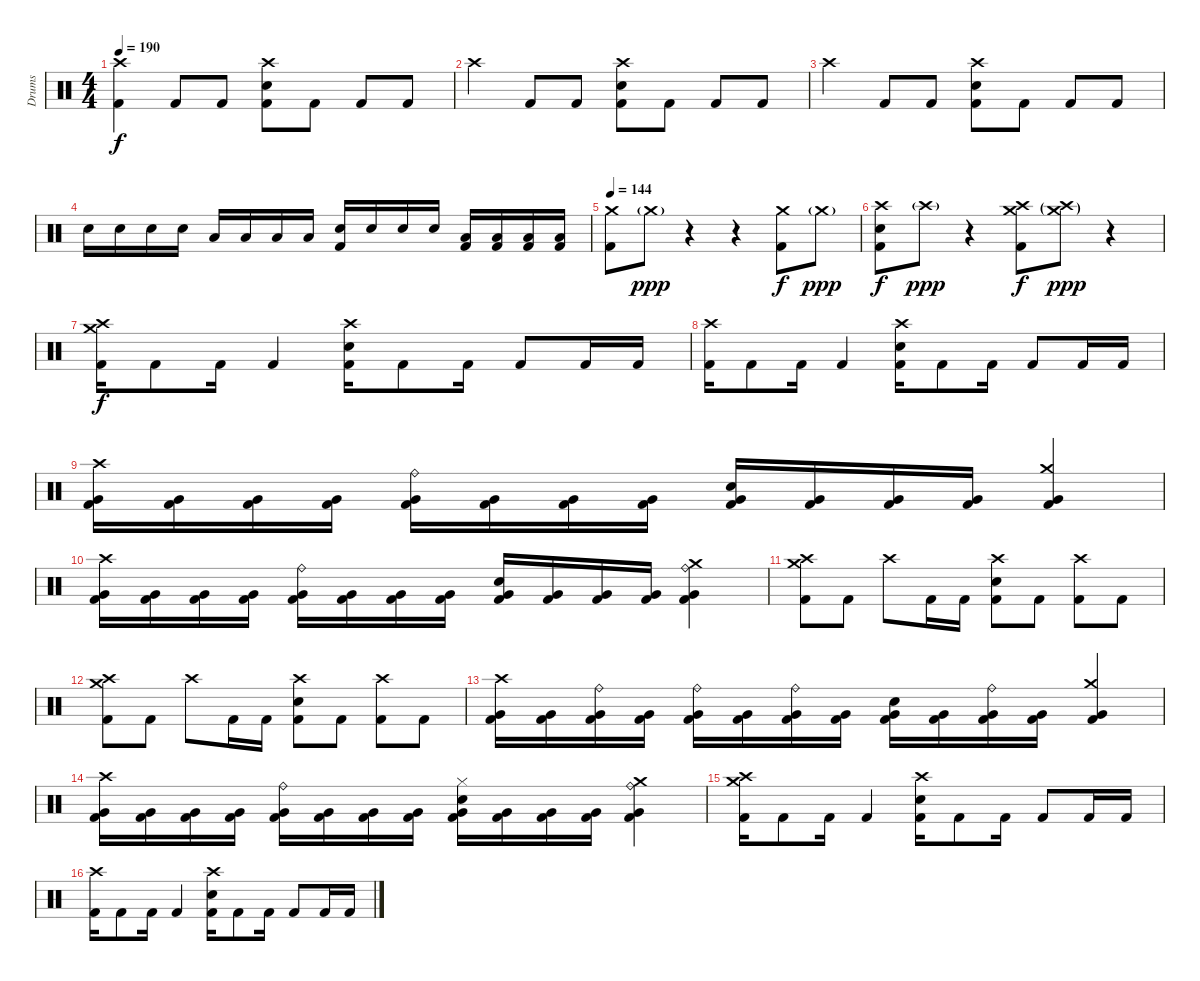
\track ("Drums" "Drums") {instrument percussion}
\staff {score}
\articulation defaults
\ts (4 4)
\tempo 190
\clef neutral
\ks c
("Crash high (hit)" "Kick (hit) 2").4{dy f} "Kick (hit) 2".8 "Kick (hit) 2".8 ("Crash high (hit)" "Electric Snare (hit)" "Kick (hit) 2").8 "Kick (hit) 2".8 "Kick (hit) 2".8 "Kick (hit) 2".8 |
"Crash high (hit)".4 "Kick (hit) 2".8 "Kick (hit) 2".8 ("Crash high (hit)" "Electric Snare (hit)" "Kick (hit) 2").8 "Kick (hit) 2".8 "Kick (hit) 2".8 "Kick (hit) 2".8 |
"Crash high (hit)".4 "Kick (hit) 2".8 "Kick (hit) 2".8 ("Crash high (hit)" "Electric Snare (hit)" "Kick (hit) 2").8 "Kick (hit) 2".8 "Kick (hit) 2".8 "Kick (hit) 2".8 |
"Electric Snare (hit)".16 "Electric Snare (hit)".16 "Electric Snare (hit)".16 "Electric Snare (hit)".16 "Low Tom (hit)".16 "Low Tom (hit)".16 "Low Tom (hit)".16 "Low Tom (hit)".16 ("Electric Snare (hit)" "Kick (hit) 2").16 "Electric Snare (hit)".16 "Electric Snare (hit)".16 "Electric Snare (hit)".16 ("Low Tom (hit)" "Kick (hit) 2").16 ("Low Tom (hit)" "Kick (hit) 2").16 ("Low Tom (hit)" "Kick (hit) 2").16 ("Low Tom (hit)" "Kick (hit) 2").16 |
\tempo 144
("Crash medium (hit)" "Kick (hit) 2").8 "Crash medium (hit)"{g}.8{dy ppp} r.4 r.4 ("Crash medium (hit)" "Kick (hit) 2").8{dy f} "Crash medium (hit)"{g}.8{dy ppp} |
("Crash high (hit)" "Electric Snare (hit)" "Kick (hit) 2").8{dy f} "Crash high (hit)"{g}.8{dy ppp} r.4 ("Crash high (hit)" "Crash medium (hit)" "Kick (hit) 2").8{dy f} ("Crash high (hit)"{g} "Crash medium (hit)"{g}).8{dy ppp} r.4 |
("Crash high (hit)" "Crash medium (hit)" "Kick (hit) 2").16{dy f} "Kick (hit) 2".8 "Kick (hit) 2".16 "Kick (hit) 2".4 ("Crash high (hit)" "Electric Snare (hit)" "Kick (hit) 2").16 "Kick (hit) 2".8 "Kick (hit) 2".16 "Kick (hit) 2".8 "Kick (hit) 2".16 "Kick (hit) 2".16 |
("Crash high (hit)" "Kick (hit) 2").16 "Kick (hit) 2".8 "Kick (hit) 2".16 "Kick (hit) 2".4 ("Crash high (hit)" "Electric Snare (hit)" "Kick (hit) 2").16 "Kick (hit) 2".8 "Kick (hit) 2".16 "Kick (hit) 2".8 "Kick (hit) 2".16 "Kick (hit) 2".16 |
("Crash high (hit)" "Very Low Tom (hit)" "Kick (hit) 2").16 ("Very Low Tom (hit)" "Kick (hit) 2").16 ("Very Low Tom (hit)" "Kick (hit) 2").16 ("Very Low Tom (hit)" "Kick (hit) 2").16 ("Ride (bell)" "Very Low Tom (hit)" "Kick (hit) 2").16 ("Very Low Tom (hit)" "Kick (hit) 2").16 ("Very Low Tom (hit)" "Kick (hit) 2").16 ("Very Low Tom (hit)" "Kick (hit) 2").16 ("Electric Snare (hit)" "Very Low Tom (hit)" "Kick (hit) 2").16 ("Very Low Tom (hit)" "Kick (hit) 2").16 ("Very Low Tom (hit)" "Kick (hit) 2").16 ("Very Low Tom (hit)" "Kick (hit) 2").16 ("Crash medium (hit)" "Very Low Tom (hit)" "Kick (hit) 2").4 |
("Crash high (hit)" "Very Low Tom (hit)" "Kick (hit) 2").16 ("Very Low Tom (hit)" "Kick (hit) 2").16 ("Very Low Tom (hit)" "Kick (hit) 2").16 ("Very Low Tom (hit)" "Kick (hit) 2").16 ("Ride (bell)" "Very Low Tom (hit)" "Kick (hit) 2").16 ("Very Low Tom (hit)" "Kick (hit) 2").16 ("Very Low Tom (hit)" "Kick (hit) 2").16 ("Very Low Tom (hit)" "Kick (hit) 2").16 ("Electric Snare (hit)" "Very Low Tom (hit)" "Kick (hit) 2").16 ("Very Low Tom (hit)" "Kick (hit) 2").16 ("Very Low Tom (hit)" "Kick (hit) 2").16 ("Very Low Tom (hit)" "Kick (hit) 2").16 ("Crash medium (hit)" "Ride (bell)" "Very Low Tom (hit)" "Kick (hit) 2").4 |
("Crash high (hit)" "Crash medium (hit)" "Kick (hit) 2").8 "Kick (hit) 2".8 "Crash high (hit)".8 "Kick (hit) 2".16 "Kick (hit) 2".16 ("Crash high (hit)" "Electric Snare (hit)" "Kick (hit) 2").8 "Kick (hit) 2".8 ("Crash high (hit)" "Kick (hit) 2").8 "Kick (hit) 2".8 |
("Crash high (hit)" "Crash medium (hit)" "Kick (hit) 2").8 "Kick (hit) 2".8 "Crash high (hit)".8 "Kick (hit) 2".16 "Kick (hit) 2".16 ("Crash high (hit)" "Electric Snare (hit)" "Kick (hit) 2").8 "Kick (hit) 2".8 ("Crash high (hit)" "Kick (hit) 2").8 "Kick (hit) 2".8 |
("Crash high (hit)" "Very Low Tom (hit)" "Kick (hit) 2").16 ("Very Low Tom (hit)" "Kick (hit) 2").16 ("Ride (bell)" "Very Low Tom (hit)" "Kick (hit) 2").16 ("Very Low Tom (hit)" "Kick (hit) 2").16 ("Ride (bell)" "Very Low Tom (hit)" "Kick (hit) 2").16 ("Very Low Tom (hit)" "Kick (hit) 2").16 ("Ride (bell)" "Very Low Tom (hit)" "Kick (hit) 2").16 ("Very Low Tom (hit)" "Kick (hit) 2").16 ("Electric Snare (hit)" "Very Low Tom (hit)" "Kick (hit) 2").16 ("Very Low Tom (hit)" "Kick (hit) 2").16 ("Ride (bell)" "Very Low Tom (hit)" "Kick (hit) 2").16 ("Very Low Tom (hit)" "Kick (hit) 2").16 ("Crash medium (hit)" "Very Low Tom (hit)" "Kick (hit) 2").4 |
("Crash high (hit)" "Very Low Tom (hit)" "Kick (hit) 2").16 ("Very Low Tom (hit)" "Kick (hit) 2").16 ("Very Low Tom (hit)" "Kick (hit) 2").16 ("Very Low Tom (hit)" "Kick (hit) 2").16 ("Ride (bell)" "Very Low Tom (hit)" "Kick (hit) 2").16 ("Very Low Tom (hit)" "Kick (hit) 2").16 ("Very Low Tom (hit)" "Kick (hit) 2").16 ("Very Low Tom (hit)" "Kick (hit) 2").16 ("Hi-Hat (closed)" "Electric Snare (hit)" "Very Low Tom (hit)" "Kick (hit) 2").16 ("Very Low Tom (hit)" "Kick (hit) 2").16 ("Very Low Tom (hit)" "Kick (hit) 2").16 ("Very Low Tom (hit)" "Kick (hit) 2").16 ("Crash medium (hit)" "Ride (bell)" "Very Low Tom (hit)" "Kick (hit) 2").4 |
("Crash high (hit)" "Crash medium (hit)" "Kick (hit) 2").16 "Kick (hit) 2".8 "Kick (hit) 2".16 "Kick (hit) 2".4 ("Crash high (hit)" "Electric Snare (hit)" "Kick (hit) 2").16 "Kick (hit) 2".8 "Kick (hit) 2".16 "Kick (hit) 2".8 "Kick (hit) 2".16 "Kick (hit) 2".16 |
("Crash high (hit)" "Kick (hit) 2").16 "Kick (hit) 2".8 "Kick (hit) 2".16 "Kick (hit) 2".4 ("Crash high (hit)" "Electric Snare (hit)" "Kick (hit) 2").16 "Kick (hit) 2".8 "Kick (hit) 2".16 "Kick (hit) 2".8 "Kick (hit) 2".16 "Kick (hit) 2".16
